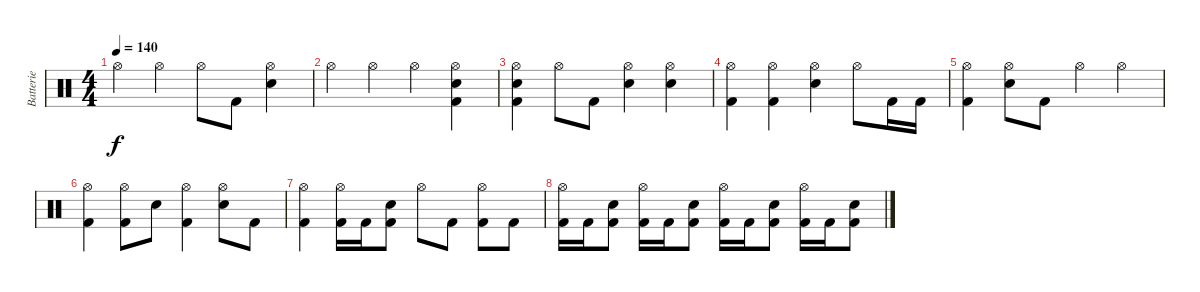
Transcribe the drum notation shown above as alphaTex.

\track ("Batterie" "Batterie") {instrument percussion}
\staff {score}
\articulation defaults
\ts (4 4)
\tempo 140
\clef neutral
\ks c "Hi-Hat (open)".4{dy f} "Hi-Hat (open)".4 "Hi-Hat (open)".8 "Kick (hit) 2".8
("Hi-Hat (open)" "Electric Snare (hit)").4 |
"Hi-Hat (open)".4 "Hi-Hat (open)".4 "Hi-Hat (open)".4 ("Hi-Hat (open)" "Electric Snare (hit)" "Kick (hit) 2").4 |
("Hi-Hat (open)" "Electric Snare (hit)" "Kick (hit) 2").4 "Hi-Hat (open)".8 "Kick (hit) 2".8 ("Hi-Hat (open)" "Electric Snare (hit)").4 ("Hi-Hat (open)" "Electric Snare (hit)").4 |
("Hi-Hat (open)" "Kick (hit) 2").4 ("Hi-Hat (open)" "Kick (hit) 2").4 ("Hi-Hat (open)" "Electric Snare (hit)").4 "Hi-Hat (open)".8 "Kick (hit) 2".16 "Kick (hit) 2".16 |
("Hi-Hat (open)" "Kick (hit) 2").4 ("Hi-Hat (open)" "Electric Snare (hit)").8 "Kick (hit) 2".8 "Hi-Hat (open)".4 "Hi-Hat (open)".4 |
("Hi-Hat (open)" "Kick (hit) 2").4 ("Hi-Hat (open)" "Kick (hit) 2").8 "Electric Snare (hit)".8 ("Hi-Hat (open)" "Kick (hit) 2").4 ("Hi-Hat (open)" "Electric Snare (hit)").8 "Kick (hit) 2".8 |
("Hi-Hat (open)" "Kick (hit) 2").4 ("Hi-Hat (open)" "Kick (hit) 2").16 "Kick (hit) 2".16 ("Electric Snare (hit)" "Kick (hit) 2").8 "Hi-Hat (open)".8 "Kick (hit) 2".8 ("Hi-Hat (open)" "Kick (hit) 2").8 "Kick (hit) 2".8 |
("Hi-Hat (open)" "Kick (hit) 2").16 "Kick (hit) 2".16 ("Electric Snare (hit)" "Kick (hit) 2").8 ("Hi-Hat (open)" "Kick (hit) 2").16 "Kick (hit) 2".16 ("Electric Snare (hit)" "Kick (hit) 2").8 ("Hi-Hat (open)" "Kick (hit) 2").16 "Kick (hit) 2".16 ("Electric Snare (hit)" "Kick (hit) 2").8 ("Hi-Hat (open)" "Kick (hit) 2").16 "Kick (hit) 2".16 ("Electric Snare (hit)" "Kick (hit) 2").8
